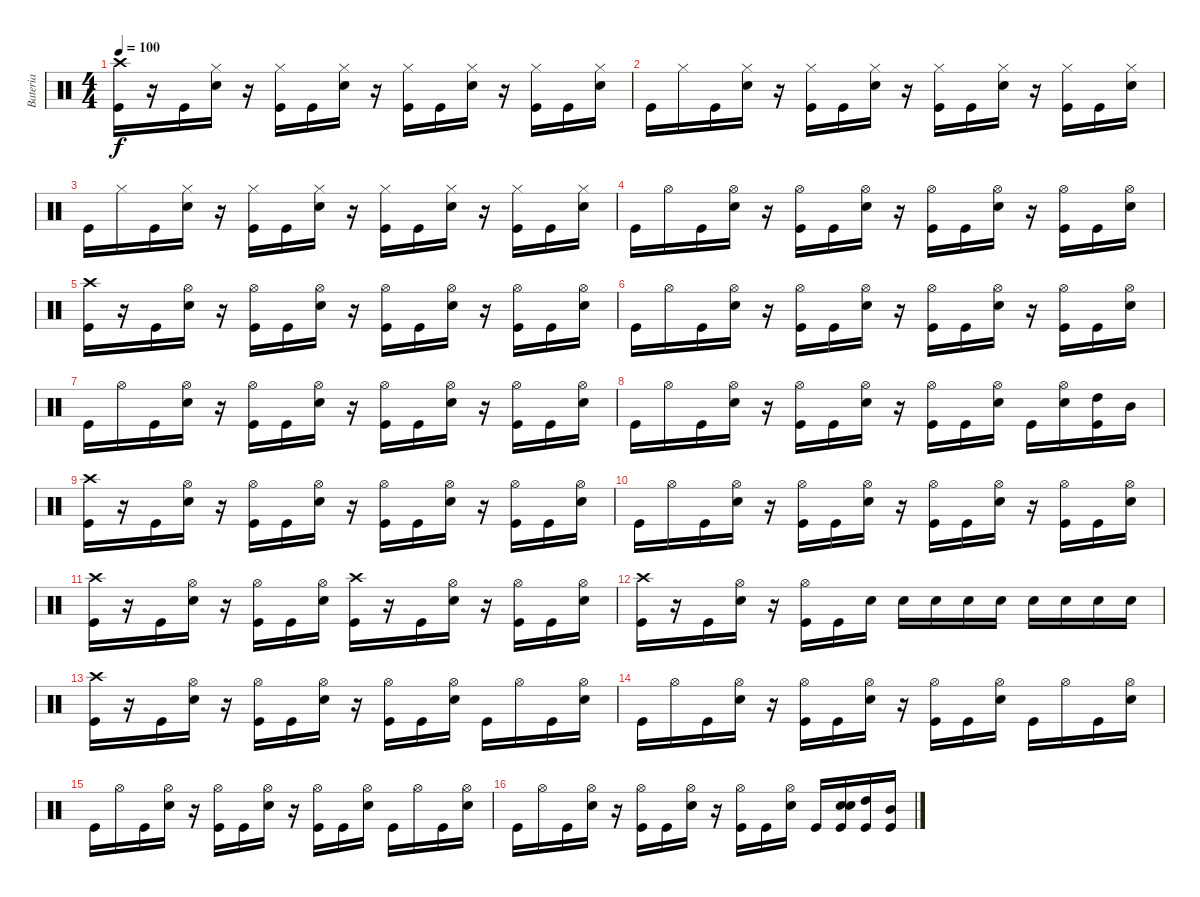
\track ("Bateria" "Bateria") {instrument percussion}
\staff {score}
\articulation defaults
\ts (4 4)
\tempo 100
\clef neutral
\ks c
("Crash high (hit)" "Kick (hit)").16{dy f} r.16 "Kick (hit)".16 ("Snare (hit) 2" "Hi-Hat (closed)").16 r.16 ("Hi-Hat (closed)" "Kick (hit)").16 "Kick (hit)".16 ("Snare (hit) 2" "Hi-Hat (closed)").16 r.16 ("Hi-Hat (closed)" "Kick (hit)").16 "Kick (hit)".16 ("Snare (hit) 2" "Hi-Hat (closed)").16 r.16 ("Hi-Hat (closed)" "Kick (hit)").16 "Kick (hit)".16 ("Snare (hit) 2" "Hi-Hat (closed)").16 |
"Kick (hit)".16 "Hi-Hat (closed)".16 "Kick (hit)".16 ("Snare (hit) 2" "Hi-Hat (closed)").16 r.16 ("Hi-Hat (closed)" "Kick (hit)").16 "Kick (hit)".16 ("Snare (hit) 2" "Hi-Hat (closed)").16 r.16 ("Hi-Hat (closed)" "Kick (hit)").16 "Kick (hit)".16 ("Snare (hit) 2" "Hi-Hat (closed)").16 r.16 ("Hi-Hat (closed)" "Kick (hit)").16 "Kick (hit)".16 ("Snare (hit) 2" "Hi-Hat (closed)").16 |
"Kick (hit)".16 "Hi-Hat (closed)".16 "Kick (hit)".16 ("Snare (hit) 2" "Hi-Hat (closed)").16 r.16 ("Hi-Hat (closed)" "Kick (hit)").16 "Kick (hit)".16 ("Snare (hit) 2" "Hi-Hat (closed)").16 r.16 ("Hi-Hat (closed)" "Kick (hit)").16 "Kick (hit)".16 ("Snare (hit) 2" "Hi-Hat (closed)").16 r.16 ("Hi-Hat (closed)" "Kick (hit)").16 "Kick (hit)".16 ("Snare (hit) 2" "Hi-Hat (closed)").16 |
"Kick (hit)".16 "Hi-Hat (open)".16 "Kick (hit)".16 ("Snare (hit) 2" "Hi-Hat (open)").16 r.16 ("Hi-Hat (open)" "Kick (hit)").16 "Kick (hit)".16 ("Snare (hit) 2" "Hi-Hat (open)").16 r.16 ("Hi-Hat (open)" "Kick (hit)").16 "Kick (hit)".16 ("Snare (hit) 2" "Hi-Hat (open)").16 r.16 ("Hi-Hat (open)" "Kick (hit)").16 "Kick (hit)".16 ("Snare (hit) 2" "Hi-Hat (open)").16 |
("Crash high (hit)" "Kick (hit)").16 r.16 "Kick (hit)".16 ("Snare (hit) 2" "Hi-Hat (open)").16 r.16 ("Hi-Hat (open)" "Kick (hit)").16 "Kick (hit)".16 ("Snare (hit) 2" "Hi-Hat (open)").16 r.16 ("Hi-Hat (open)" "Kick (hit)").16 "Kick (hit)".16 ("Snare (hit) 2" "Hi-Hat (open)").16 r.16 ("Hi-Hat (open)" "Kick (hit)").16 "Kick (hit)".16 ("Snare (hit) 2" "Hi-Hat (open)").16 |
"Kick (hit)".16 "Hi-Hat (open)".16 "Kick (hit)".16 ("Snare (hit) 2" "Hi-Hat (open)").16 r.16 ("Hi-Hat (open)" "Kick (hit)").16 "Kick (hit)".16 ("Snare (hit) 2" "Hi-Hat (open)").16 r.16 ("Hi-Hat (open)" "Kick (hit)").16 "Kick (hit)".16 ("Snare (hit) 2" "Hi-Hat (open)").16 r.16 ("Hi-Hat (open)" "Kick (hit)").16 "Kick (hit)".16 ("Snare (hit) 2" "Hi-Hat (open)").16 |
"Kick (hit)".16 "Hi-Hat (open)".16 "Kick (hit)".16 ("Snare (hit) 2" "Hi-Hat (open)").16 r.16 ("Hi-Hat (open)" "Kick (hit)").16 "Kick (hit)".16 ("Snare (hit) 2" "Hi-Hat (open)").16 r.16 ("Hi-Hat (open)" "Kick (hit)").16 "Kick (hit)".16 ("Snare (hit) 2" "Hi-Hat (open)").16 r.16 ("Hi-Hat (open)" "Kick (hit)").16 "Kick (hit)".16 ("Snare (hit) 2" "Hi-Hat (open)").16 |
"Kick (hit)".16 "Hi-Hat (open)".16 "Kick (hit)".16 ("Snare (hit) 2" "Hi-Hat (open)").16 r.16 ("Hi-Hat (open)" "Kick (hit)").16 "Kick (hit)".16 ("Snare (hit) 2" "Hi-Hat (open)").16 r.16 ("Hi-Hat (open)" "Kick (hit)").16 "Kick (hit)".16 ("Snare (hit) 2" "Hi-Hat (open)").16 "Kick (hit)".16 ("Snare (hit) 2" "Hi-Hat (open)").16 ("Kick (hit)" "High Tom (hit)").16 "Mid Tom (hit)".16 |
("Crash high (hit)" "Kick (hit)").16 r.16 "Kick (hit)".16 ("Snare (hit) 2" "Hi-Hat (open)").16 r.16 ("Hi-Hat (open)" "Kick (hit)").16 "Kick (hit)".16 ("Snare (hit) 2" "Hi-Hat (open)").16 r.16 ("Hi-Hat (open)" "Kick (hit)").16 "Kick (hit)".16 ("Snare (hit) 2" "Hi-Hat (open)").16 r.16 ("Hi-Hat (open)" "Kick (hit)").16 "Kick (hit)".16 ("Snare (hit) 2" "Hi-Hat (open)").16 |
"Kick (hit)".16 "Hi-Hat (open)".16 "Kick (hit)".16 ("Snare (hit) 2" "Hi-Hat (open)").16 r.16 ("Hi-Hat (open)" "Kick (hit)").16 "Kick (hit)".16 ("Snare (hit) 2" "Hi-Hat (open)").16 r.16 ("Hi-Hat (open)" "Kick (hit)").16 "Kick (hit)".16 ("Snare (hit) 2" "Hi-Hat (open)").16 r.16 ("Hi-Hat (open)" "Kick (hit)").16 "Kick (hit)".16 ("Snare (hit) 2" "Hi-Hat (open)").16 |
("Crash high (hit)" "Kick (hit)").16 r.16 "Kick (hit)".16 ("Snare (hit) 2" "Hi-Hat (open)").16 r.16 ("Hi-Hat (open)" "Kick (hit)").16 "Kick (hit)".16 ("Snare (hit) 2" "Hi-Hat (open)").16 ("Crash high (hit)" "Kick (hit)").16 r.16 "Kick (hit)".16 ("Snare (hit) 2" "Hi-Hat (open)").16 r.16 ("Hi-Hat (open)" "Kick (hit)").16 "Kick (hit)".16 ("Snare (hit) 2" "Hi-Hat (open)").16 |
("Crash high (hit)" "Kick (hit)").16 r.16 "Kick (hit)".16 ("Snare (hit) 2" "Hi-Hat (open)").16 r.16 ("Hi-Hat (open)" "Kick (hit)").16 "Kick (hit)".16 "Snare (hit) 2".16 "Snare (hit) 2".16 "Snare (hit) 2".16 "Snare (hit) 2".16 "Snare (hit) 2".16 "Snare (hit) 2".16 "Snare (hit) 2".16 "Snare (hit) 2".16 "Snare (hit) 2".16 |
("Crash high (hit)" "Kick (hit)").16 r.16 "Kick (hit)".16 ("Snare (hit) 2" "Hi-Hat (open)").16 r.16 ("Hi-Hat (open)" "Kick (hit)").16 "Kick (hit)".16 ("Snare (hit) 2" "Hi-Hat (open)").16 r.16 ("Hi-Hat (open)" "Kick (hit)").16 "Kick (hit)".16 ("Snare (hit) 2" "Hi-Hat (open)").16 "Kick (hit)".16 "Hi-Hat (open)".16 "Kick (hit)".16 ("Snare (hit) 2" "Hi-Hat (open)").16 |
"Kick (hit)".16 "Hi-Hat (open)".16 "Kick (hit)".16 ("Snare (hit) 2" "Hi-Hat (open)").16 r.16 ("Hi-Hat (open)" "Kick (hit)").16 "Kick (hit)".16 ("Snare (hit) 2" "Hi-Hat (open)").16 r.16 ("Hi-Hat (open)" "Kick (hit)").16 "Kick (hit)".16 ("Snare (hit) 2" "Hi-Hat (open)").16 "Kick (hit)".16 "Hi-Hat (open)".16 "Kick (hit)".16 ("Snare (hit) 2" "Hi-Hat (open)").16 |
"Kick (hit)".16 "Hi-Hat (open)".16 "Kick (hit)".16 ("Snare (hit) 2" "Hi-Hat (open)").16 r.16 ("Hi-Hat (open)" "Kick (hit)").16 "Kick (hit)".16 ("Snare (hit) 2" "Hi-Hat (open)").16 r.16 ("Hi-Hat (open)" "Kick (hit)").16 "Kick (hit)".16 ("Snare (hit) 2" "Hi-Hat (open)").16 "Kick (hit)".16 "Hi-Hat (open)".16 "Kick (hit)".16 ("Snare (hit) 2" "Hi-Hat (open)").16 |
"Kick (hit)".16 "Hi-Hat (open)".16 "Kick (hit)".16 ("Snare (hit) 2" "Hi-Hat (open)").16 r.16 ("Hi-Hat (open)" "Kick (hit)").16 "Kick (hit)".16 ("Snare (hit) 2" "Hi-Hat (open)").16 r.16 ("Hi-Hat (open)" "Kick (hit)").16 "Kick (hit)".16 ("Snare (hit) 2" "Hi-Hat (open)").16 "Kick (hit)".16 ("Snare (hit) 2" "Snare (hit) 2" "Kick (hit)").16 ("Kick (hit)" "High Tom (hit)").16 ("Kick (hit)" "Mid Tom (hit)").16
